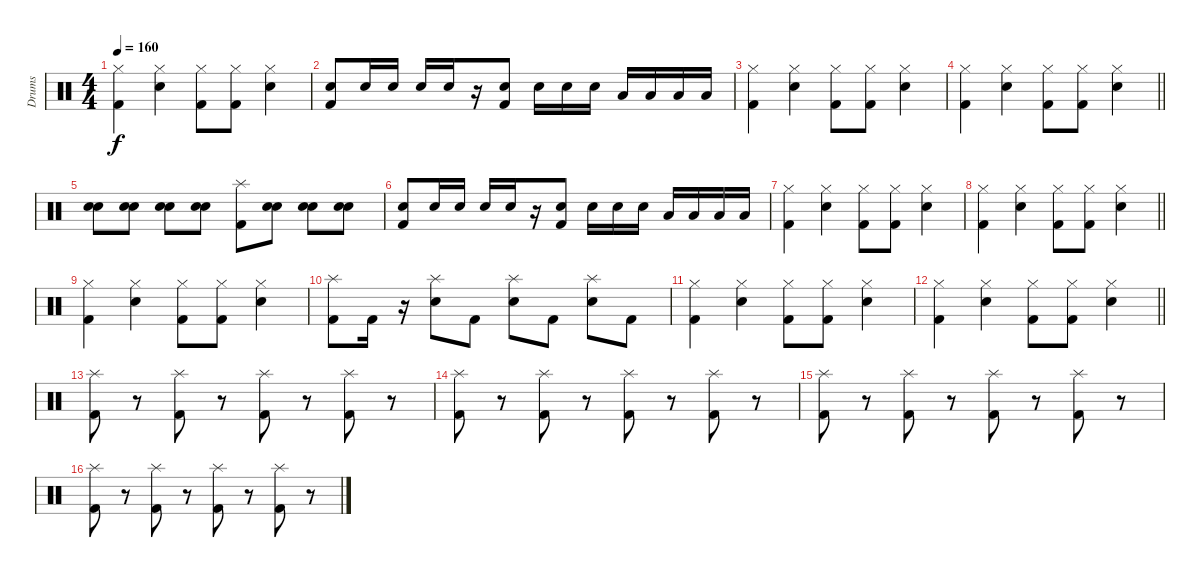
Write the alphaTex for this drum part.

\track ("Drums" "Drums") {instrument percussion}
\staff {score}
\articulation defaults
\ts (4 4)
\tempo 160
\clef neutral
\ks c
("Hi-Hat (closed)" "Kick (hit) 2").4{dy f} ("Hi-Hat (closed)" "Snare (hit) 2").4 ("Hi-Hat (closed)" "Kick (hit) 2").8 ("Hi-Hat (closed)" "Kick (hit) 2").8 ("Hi-Hat (closed)" "Snare (hit) 2").4 |
("Electric Snare (hit)" "Kick (hit) 2").8 "Electric Snare (hit)".16 "Electric Snare (hit)".16 "Electric Snare (hit)".16 "Electric Snare (hit)".16 r.16 ("Electric Snare (hit)" "Kick (hit) 2").8 "Electric Snare (hit)".16 "Electric Snare (hit)".16 "Electric Snare (hit)".16 "Low Tom (hit)".16 "Low Tom (hit)".16 "Low Tom (hit)".16 "Low Tom (hit)".16 |
("Hi-Hat (closed)" "Kick (hit) 2").4 ("Hi-Hat (closed)" "Snare (hit) 2").4 ("Hi-Hat (closed)" "Kick (hit) 2").8 ("Hi-Hat (closed)" "Kick (hit) 2").8 ("Hi-Hat (closed)" "Snare (hit) 2").4 |
\barLineRight lightlight
("Hi-Hat (closed)" "Kick (hit) 2").4 ("Hi-Hat (closed)" "Snare (hit) 2").4 ("Hi-Hat (closed)" "Kick (hit) 2").8 ("Hi-Hat (closed)" "Kick (hit) 2").8 ("Hi-Hat (closed)" "Snare (hit) 2").4 |
("Electric Snare (hit)" "Electric Snare (hit)").8 ("Electric Snare (hit)" "Electric Snare (hit)").8 ("Electric Snare (hit)" "Electric Snare (hit)").8 ("Electric Snare (hit)" "Electric Snare (hit)").8 ("Splash (hit)" "Kick (hit) 2").8 ("Electric Snare (hit)" "Electric Snare (hit)").8 ("Electric Snare (hit)" "Electric Snare (hit)").8 ("Electric Snare (hit)" "Electric Snare (hit)").8 |
("Electric Snare (hit)" "Kick (hit) 2").8 "Electric Snare (hit)".16 "Electric Snare (hit)".16 "Electric Snare (hit)".16 "Electric Snare (hit)".16 r.16 ("Electric Snare (hit)" "Kick (hit) 2").8 "Electric Snare (hit)".16 "Electric Snare (hit)".16 "Electric Snare (hit)".16 "Low Tom (hit)".16 "Low Tom (hit)".16 "Low Tom (hit)".16 "Low Tom (hit)".16 |
("Hi-Hat (closed)" "Kick (hit) 2").4 ("Hi-Hat (closed)" "Snare (hit) 2").4 ("Hi-Hat (closed)" "Kick (hit) 2").8 ("Hi-Hat (closed)" "Kick (hit) 2").8 ("Hi-Hat (closed)" "Snare (hit) 2").4 |
\barLineRight lightlight
("Hi-Hat (closed)" "Kick (hit) 2").4 ("Hi-Hat (closed)" "Snare (hit) 2").4 ("Hi-Hat (closed)" "Kick (hit) 2").8 ("Hi-Hat (closed)" "Kick (hit) 2").8 ("Hi-Hat (closed)" "Snare (hit) 2").4 |
("Hi-Hat (closed)" "Kick (hit) 2").4 ("Hi-Hat (closed)" "Snare (hit) 2").4 ("Hi-Hat (closed)" "Kick (hit) 2").8 ("Hi-Hat (closed)" "Kick (hit) 2").8 ("Hi-Hat (closed)" "Snare (hit) 2").4 |
("Splash (hit)" "Kick (hit) 2").8 "Kick (hit) 2".16 r.16 ("Splash (hit)" "Electric Snare (hit)").8 "Kick (hit) 2".8 ("Splash (hit)" "Electric Snare (hit)").8 "Kick (hit) 2".8 ("Splash (hit)" "Electric Snare (hit)").8 "Kick (hit) 2".8 |
("Hi-Hat (closed)" "Kick (hit) 2").4 ("Hi-Hat (closed)" "Snare (hit) 2").4 ("Hi-Hat (closed)" "Kick (hit) 2").8 ("Hi-Hat (closed)" "Kick (hit) 2").8 ("Hi-Hat (closed)" "Snare (hit) 2").4 |
\barLineRight lightlight
("Hi-Hat (closed)" "Kick (hit) 2").4 ("Hi-Hat (closed)" "Snare (hit) 2").4 ("Hi-Hat (closed)" "Kick (hit) 2").8 ("Hi-Hat (closed)" "Kick (hit) 2").8 ("Hi-Hat (closed)" "Snare (hit) 2").4 |
("Splash (hit)" "Kick (hit) 2").8 r.8 ("Splash (hit)" "Kick (hit) 2").8 r.8 ("Splash (hit)" "Kick (hit) 2").8 r.8 ("Splash (hit)" "Kick (hit) 2").8 r.8 |
("Splash (hit)" "Kick (hit) 2").8 r.8 ("Splash (hit)" "Kick (hit) 2").8 r.8 ("Splash (hit)" "Kick (hit) 2").8 r.8 ("Splash (hit)" "Kick (hit) 2").8 r.8 |
("Splash (hit)" "Kick (hit) 2").8 r.8 ("Splash (hit)" "Kick (hit) 2").8 r.8 ("Splash (hit)" "Kick (hit) 2").8 r.8 ("Splash (hit)" "Kick (hit) 2").8 r.8 |
("Splash (hit)" "Kick (hit) 2").8 r.8 ("Splash (hit)" "Kick (hit) 2").8 r.8 ("Splash (hit)" "Kick (hit) 2").8 r.8 ("Splash (hit)" "Kick (hit) 2").8 r.8
